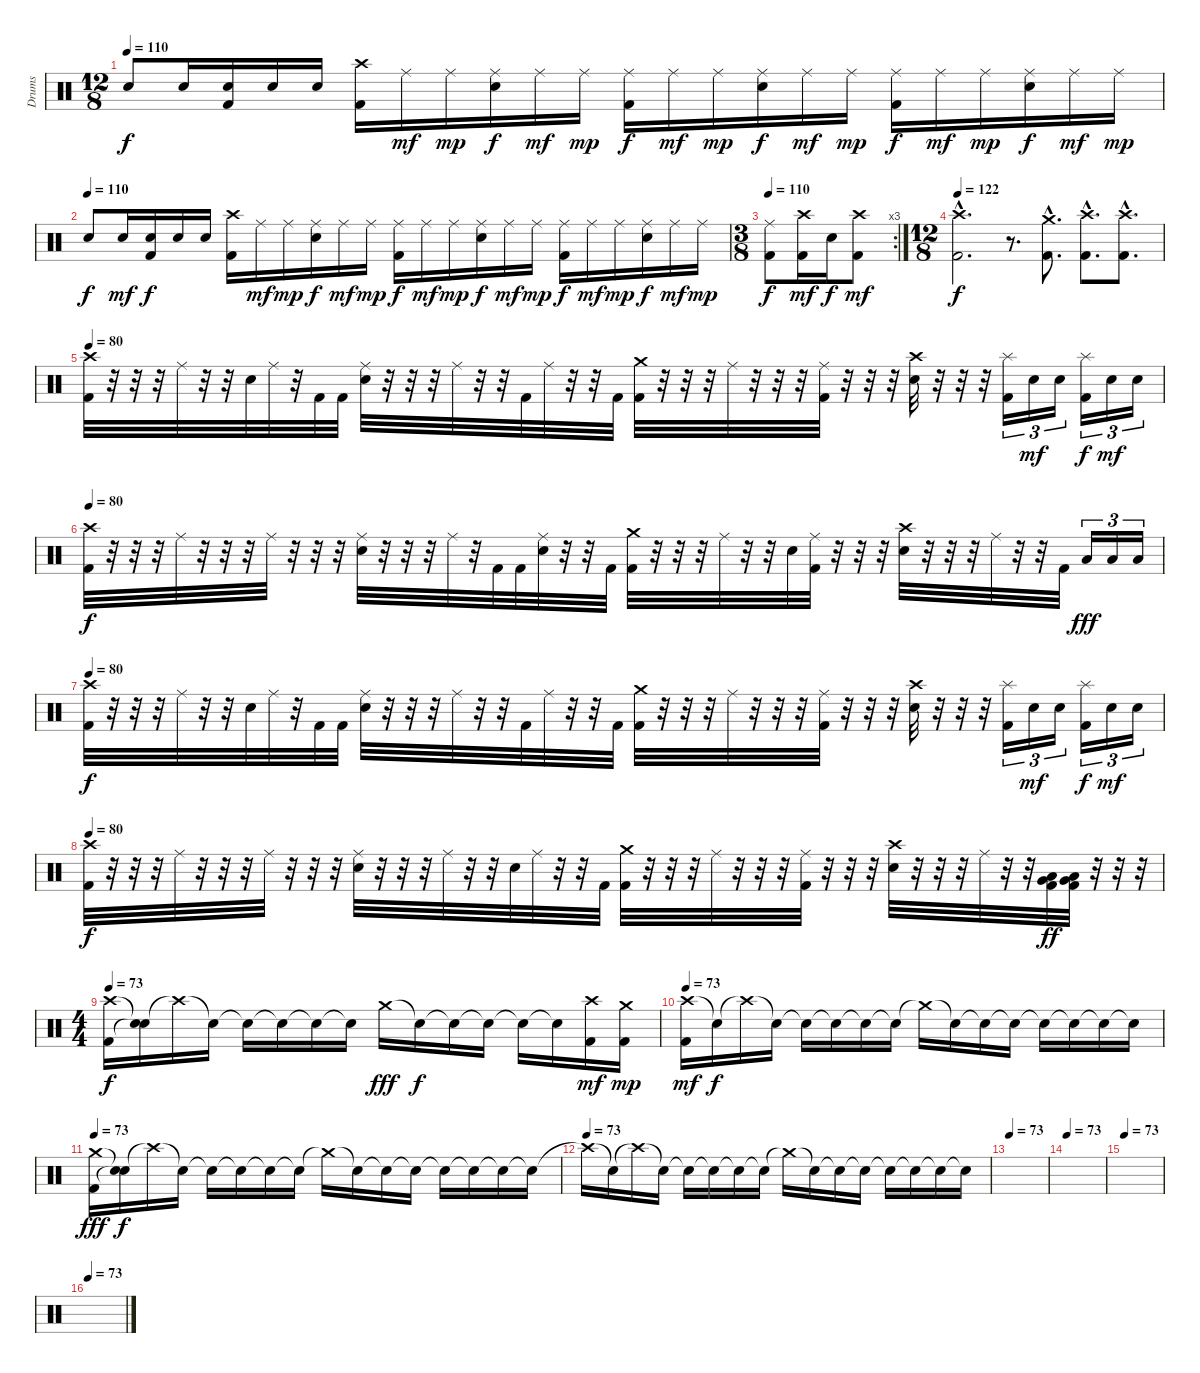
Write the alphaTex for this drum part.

\track ("Drums" "Drums") {instrument percussion}
\staff {score}
\articulation defaults
\ts (12 8)
\tempo 110
\clef neutral
\ks c "Electric Snare (hit)".8{dy f} "Electric Snare (hit)".16
("Electric Snare (hit)" "Kick (hit) 2").16 "Electric Snare (hit)".16 "Electric Snare (hit)".16 ("Crash high (hit)" "Kick (hit) 2").16 "Ride (middle)".16{dy mf} "Ride (middle)".16{dy mp} ("Ride (middle)" "Electric Snare (hit)").16{dy f} "Ride (middle)".16{dy mf} "Ride (middle)".16{dy mp} ("Ride (middle)" "Kick (hit) 2").16{dy f} "Ride (middle)".16{dy mf} "Ride (middle)".16{dy mp} ("Ride (middle)" "Electric Snare (hit)").16{dy f} "Ride (middle)".16{dy mf} "Ride (middle)".16{dy mp} ("Ride (middle)" "Kick (hit) 2").16{dy f} "Ride (middle)".16{dy mf} "Ride (middle)".16{dy mp} ("Ride (middle)" "Electric Snare (hit)").16{dy f} "Ride (middle)".16{dy mf} "Ride (middle)".16{dy mp} |
\tempo (110)
"Electric Snare (hit)".8{dy f} "Electric Snare (hit)".16{dy mf} ("Electric Snare (hit)" "Kick (hit) 2").16{dy f} "Electric Snare (hit)".16 "Electric Snare (hit)".16 ("Crash high (hit)" "Kick (hit) 2").16 "Ride (middle)".16{dy mf} "Ride (middle)".16{dy mp} ("Ride (middle)" "Electric Snare (hit)").16{dy f} "Ride (middle)".16{dy mf} "Ride (middle)".16{dy mp} ("Ride (middle)" "Kick (hit) 2").16{dy f} "Ride (middle)".16{dy mf} "Ride (middle)".16{dy mp} ("Ride (middle)" "Electric Snare (hit)").16{dy f} "Ride (middle)".16{dy mf} "Ride (middle)".16{dy mp} ("Ride (middle)" "Kick (hit) 2").16{dy f} "Ride (middle)".16{dy mf} "Ride (middle)".16{dy mp} ("Ride (middle)" "Electric Snare (hit)").16{dy f} "Ride (middle)".16{dy mf} "Ride (middle)".16{dy mp} |
\rc 3
\ts (3 8)
\tempo 110
("Ride (middle)" "Kick (hit) 2").8{dy f} ("Crash high (hit)" "Kick (hit) 2").16{dy mf} "Electric Snare (hit)".16{dy f} ("Crash high (hit)" "Kick (hit) 2").8{dy mf} |
\ts (12 8)
\tempo 122
("Crash high (hit)"{hac} "Kick (hit) 2"{hac}).2{d dy f} r.8{d} ("Crash medium (hit)"{hac} "Kick (hit) 2"{hac}).8{d} ("Crash high (hit)"{hac} "Kick (hit) 2"{hac}).8{d} ("Crash high (hit)"{hac} "Kick (hit) 2"{hac}).8{d} |
\tempo 80
("Crash high (hit)" "Kick (hit) 2").32 r.32 r.32 r.32 "Ride (middle)".32 r.32 r.32 "Electric Snare (hit)".32 "Ride (middle)".32 r.32 "Kick (hit) 2".32 "Kick (hit) 2".32 ("Ride (middle)" "Electric Snare (hit)").32 r.32 r.32 r.32 "Ride (middle)".32 r.32 r.32 "Kick (hit) 2".32 "Ride (middle)".32 r.32 r.32 "Kick (hit) 2".32 ("Crash medium (hit)" "Kick (hit) 2").32 r.32 r.32 r.32 "Ride (middle)".32 r.32 r.32 r.32 ("Ride (middle)" "Kick (hit) 2").32 r.32 r.32 r.32 ("Crash high (hit)" "Electric Snare (hit)").32 r.32 r.32 r.32 ("Splash (hit)" "Kick (hit) 2").16{tu (3 2)} "Electric Snare (hit)".16{tu (3 2) dy mf} "Electric Snare (hit)".16{tu (3 2)} ("Splash (hit)" "Kick (hit) 2").16{tu (3 2) dy f} "Electric Snare (hit)".16{tu (3 2) dy mf} "Electric Snare (hit)".16{tu (3 2)} |
\tempo 80
("Crash high (hit)" "Kick (hit) 2").32{dy f} r.32 r.32 r.32 "Ride (middle)".32 r.32 r.32 r.32 "Ride (middle)".32 r.32 r.32 r.32 ("Ride (middle)" "Electric Snare (hit)").32 r.32 r.32 r.32 "Ride (middle)".32 r.32 "Kick (hit) 2".32 "Kick (hit) 2".32 ("Ride (middle)" "Electric Snare (hit)").32 r.32 r.32 "Kick (hit) 2".32 ("Crash medium (hit)" "Kick (hit) 2").32 r.32 r.32 r.32 "Ride (middle)".32 r.32 r.32 "Electric Snare (hit)".32 ("Ride (middle)" "Kick (hit) 2").32 r.32 r.32 r.32 ("Crash high (hit)" "Electric Snare (hit)").32 r.32 r.32 r.32 "Ride (middle)".32 r.32 r.32 "Kick (hit) 2".32 "Low Tom (hit)".16{tu (3 2) dy fff} "Low Tom (hit)".16{tu (3 2)} "Low Tom (hit)".16{tu (3 2)} |
\tempo 80
("Crash high (hit)" "Kick (hit) 2").32{dy f} r.32 r.32 r.32 "Ride (middle)".32 r.32 r.32 "Electric Snare (hit)".32 "Ride (middle)".32 r.32 "Kick (hit) 2".32 "Kick (hit) 2".32 ("Ride (middle)" "Electric Snare (hit)").32 r.32 r.32 r.32 "Ride (middle)".32 r.32 r.32 "Kick (hit) 2".32 "Ride (middle)".32 r.32 r.32 "Kick (hit) 2".32 ("Crash medium (hit)" "Kick (hit) 2").32 r.32 r.32 r.32 "Ride (middle)".32 r.32 r.32 r.32 ("Ride (middle)" "Kick (hit) 2").32 r.32 r.32 r.32 ("Crash high (hit)" "Electric Snare (hit)").32 r.32 r.32 r.32 ("Splash (hit)" "Kick (hit) 2").16{tu (3 2)} "Electric Snare (hit)".16{tu (3 2) dy mf} "Electric Snare (hit)".16{tu (3 2)} ("Splash (hit)" "Kick (hit) 2").16{tu (3 2) dy f} "Electric Snare (hit)".16{tu (3 2) dy mf} "Electric Snare (hit)".16{tu (3 2)} |
\tempo 80
("Crash high (hit)" "Kick (hit) 2").32{dy f} r.32 r.32 r.32 "Ride (middle)".32 r.32 r.32 r.32 "Ride (middle)".32 r.32 r.32 r.32 ("Ride (middle)" "Electric Snare (hit)").32 r.32 r.32 r.32 "Ride (middle)".32 r.32 r.32 "Electric Snare (hit)".32 "Ride (middle)".32 r.32 r.32 "Kick (hit) 2".32 ("Crash medium (hit)" "Kick (hit) 2").32 r.32 r.32 r.32 "Ride (middle)".32 r.32 r.32 r.32 ("Ride (middle)" "Kick (hit) 2").32 r.32 r.32 r.32 ("Crash high (hit)" "Electric Snare (hit)").32 r.32 r.32 r.32 "Ride (middle)".32 r.32 r.32 ("Low Tom (hit)" "Very Low Tom (hit)" "Kick (hit) 2").32{dy ff} ("Low Tom (hit)" "Very Low Tom (hit)" "Kick (hit) 2").32 r.32 r.32 r.32 |
\ts (4 4)
\tempo 73
("Crash high (hit)" "Kick (hit) 2").16{dy f} ("Snare (hit)"{t} "Snare (hit)"{t}).16 "Crash high (hit)"{t}.16 "Snare (hit)"{t}.16 "Snare (hit)"{t}.16 "Snare (hit)"{t}.16 "Snare (hit)"{t}.16 "Snare (hit)"{t}.16{volume 0} "Crash medium (hit)".16{dy fff volume 16} "Snare (hit)"{t}.16{dy f} "Snare (hit)"{t}.16 "Snare (hit)"{t}.16 "Snare (hit)"{t}.16 "Snare (hit)"{t}.16 ("Crash high (hit)" "Kick (hit) 2").16{dy mf} ("Crash medium (hit)" "Kick (hit) 2").16{dy mp} |
\tempo 73
("Crash high (hit)" "Kick (hit) 2").16{dy mf} "Snare (hit)"{t}.16{dy f} "Crash high (hit)"{t}.16 "Snare (hit)"{t}.16 "Snare (hit)"{t}.16 "Snare (hit)"{t}.16 "Snare (hit)"{t}.16 "Snare (hit)"{t}.16 "Crash medium (hit)"{t}.16 "Snare (hit)"{t}.16 "Snare (hit)"{t}.16 "Snare (hit)"{t}.16 "Snare (hit)"{t}.16 "Snare (hit)"{t}.16 "Snare (hit)"{t}.16 "Snare (hit)"{t}.16{volume 0} |
\tempo 73
("Crash medium (hit)" "Kick (hit) 2").16{dy fff volume 16} ("Snare (hit)"{t} "Snare (hit)"{t}).16{dy f} "Crash high (hit)"{t}.16 "Snare (hit)"{t}.16 "Snare (hit)"{t}.16 "Snare (hit)"{t}.16 "Snare (hit)"{t}.16 "Snare (hit)"{t}.16 "Crash medium (hit)"{t}.16 "Snare (hit)"{t}.16 "Snare (hit)"{t}.16 "Snare (hit)"{t}.16 "Snare (hit)"{t}.16 "Snare (hit)"{t}.16 "Snare (hit)"{t}.16 "Snare (hit)"{t}.16 |
\tempo (73)
"Crash high (hit)"{t}.16 "Snare (hit)"{t}.16 "Crash high (hit)"{t}.16 "Snare (hit)"{t}.16 "Snare (hit)"{t}.16 "Snare (hit)"{t}.16 "Snare (hit)"{t}.16 "Snare (hit)"{t}.16 "Crash medium (hit)"{t}.16 "Snare (hit)"{t}.16 "Snare (hit)"{t}.16 "Snare (hit)"{t}.16 "Snare (hit)"{t}.16 "Snare (hit)"{t}.16 "Snare (hit)"{t}.16 "Snare (hit)"{t}.16 |
\tempo 73
|
\tempo 73
|
\tempo 73
|
\tempo 73
